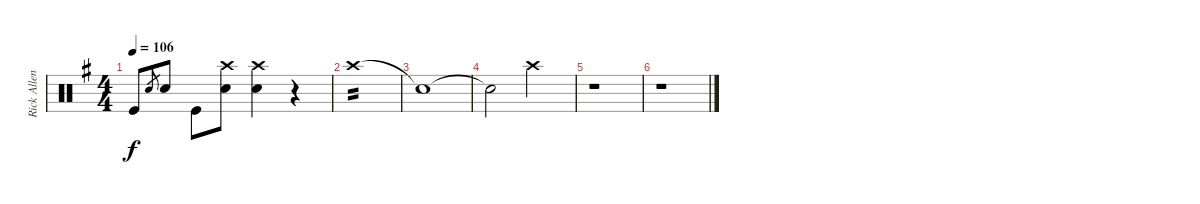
\track ("Rick Allen \"Thundergood\"" "Rick Allen") {instrument percussion}
\staff {score}
\articulation defaults
\ts (4 4)
\tempo 106
\clef neutral
\ks eminor "Kick (hit)".8{dy f} "Snare (hit) 2".8{gr} "Snare (hit) 2".8 "Kick (hit)".8
("Crash high (hit)" "Snare (hit) 2").8 ("Crash high (hit)" "Snare (hit) 2").4 r.4 |
"Crash high (hit)".1{tp 2} |
"Snare (hit)"{t}.1 |
"Snare (hit)"{t}.2 "Crash high (hit)".2 |
r.1 |
r.1
